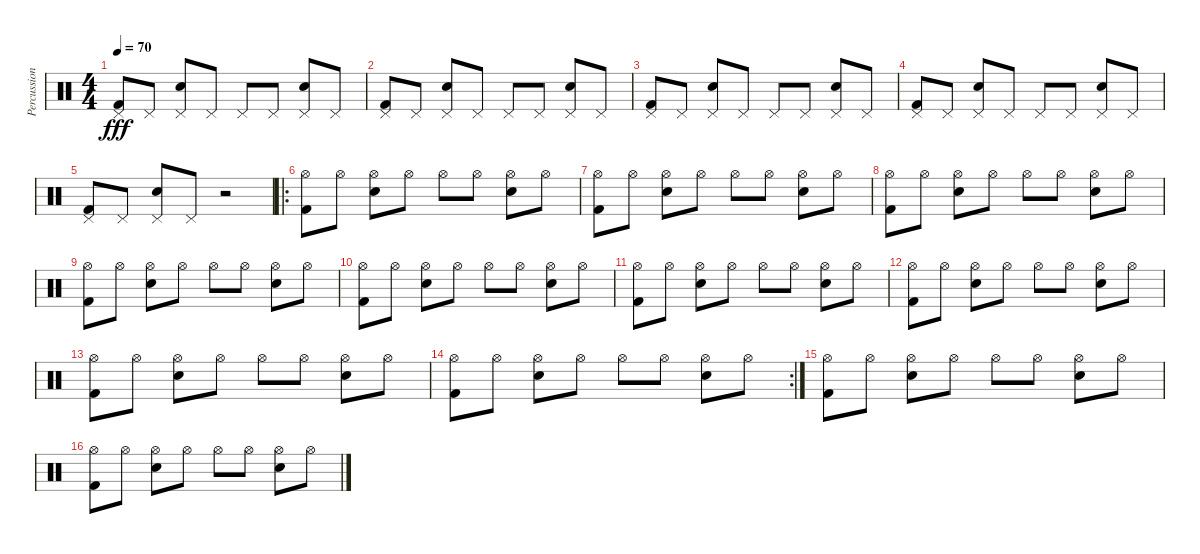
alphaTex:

\track ("Percussions" "Percussion") {instrument percussion}
\staff {score}
\articulation defaults
\ts (4 4)
\tempo 70
\clef neutral
\ks c
("Pedal Hi-Hat (hit)" "Kick (hit) 2").8{dy fff} "Pedal Hi-Hat (hit)".8 ("Pedal Hi-Hat (hit)" "Electric Snare (hit)").8 "Pedal Hi-Hat (hit)".8 "Pedal Hi-Hat (hit)".8 "Pedal Hi-Hat (hit)".8 ("Pedal Hi-Hat (hit)" "Electric Snare (hit)").8 "Pedal Hi-Hat (hit)".8 |
("Pedal Hi-Hat (hit)" "Kick (hit) 2").8 "Pedal Hi-Hat (hit)".8 ("Pedal Hi-Hat (hit)" "Electric Snare (hit)").8 "Pedal Hi-Hat (hit)".8 "Pedal Hi-Hat (hit)".8 "Pedal Hi-Hat (hit)".8 ("Pedal Hi-Hat (hit)" "Electric Snare (hit)").8 "Pedal Hi-Hat (hit)".8 |
("Pedal Hi-Hat (hit)" "Kick (hit) 2").8 "Pedal Hi-Hat (hit)".8 ("Pedal Hi-Hat (hit)" "Electric Snare (hit)").8 "Pedal Hi-Hat (hit)".8 "Pedal Hi-Hat (hit)".8 "Pedal Hi-Hat (hit)".8 ("Pedal Hi-Hat (hit)" "Electric Snare (hit)").8 "Pedal Hi-Hat (hit)".8 |
("Pedal Hi-Hat (hit)" "Kick (hit) 2").8 "Pedal Hi-Hat (hit)".8 ("Pedal Hi-Hat (hit)" "Electric Snare (hit)").8 "Pedal Hi-Hat (hit)".8 "Pedal Hi-Hat (hit)".8 "Pedal Hi-Hat (hit)".8 ("Pedal Hi-Hat (hit)" "Electric Snare (hit)").8 "Pedal Hi-Hat (hit)".8 |
("Pedal Hi-Hat (hit)" "Kick (hit) 2").8 "Pedal Hi-Hat (hit)".8 ("Pedal Hi-Hat (hit)" "Electric Snare (hit)").8 "Pedal Hi-Hat (hit)".8 r.2 |
\ro
("Hi-Hat (open)" "Kick (hit) 2").8 "Hi-Hat (open)".8 ("Hi-Hat (open)" "Electric Snare (hit)").8 "Hi-Hat (open)".8 "Hi-Hat (open)".8 "Hi-Hat (open)".8 ("Hi-Hat (open)" "Electric Snare (hit)").8 "Hi-Hat (open)".8 |
("Hi-Hat (open)" "Kick (hit) 2").8 "Hi-Hat (open)".8 ("Hi-Hat (open)" "Electric Snare (hit)").8 "Hi-Hat (open)".8 "Hi-Hat (open)".8 "Hi-Hat (open)".8 ("Hi-Hat (open)" "Electric Snare (hit)").8 "Hi-Hat (open)".8 |
("Hi-Hat (open)" "Kick (hit) 2").8 "Hi-Hat (open)".8 ("Hi-Hat (open)" "Electric Snare (hit)").8 "Hi-Hat (open)".8 "Hi-Hat (open)".8 "Hi-Hat (open)".8 ("Hi-Hat (open)" "Electric Snare (hit)").8 "Hi-Hat (open)".8 |
("Hi-Hat (open)" "Kick (hit) 2").8 "Hi-Hat (open)".8 ("Hi-Hat (open)" "Electric Snare (hit)").8 "Hi-Hat (open)".8 "Hi-Hat (open)".8 "Hi-Hat (open)".8 ("Hi-Hat (open)" "Electric Snare (hit)").8 "Hi-Hat (open)".8 |
("Hi-Hat (open)" "Kick (hit) 2").8 "Hi-Hat (open)".8 ("Hi-Hat (open)" "Electric Snare (hit)").8 "Hi-Hat (open)".8 "Hi-Hat (open)".8 "Hi-Hat (open)".8 ("Hi-Hat (open)" "Electric Snare (hit)").8 "Hi-Hat (open)".8 |
("Hi-Hat (open)" "Kick (hit) 2").8 "Hi-Hat (open)".8 ("Hi-Hat (open)" "Electric Snare (hit)").8 "Hi-Hat (open)".8 "Hi-Hat (open)".8 "Hi-Hat (open)".8 ("Hi-Hat (open)" "Electric Snare (hit)").8 "Hi-Hat (open)".8 |
("Hi-Hat (open)" "Kick (hit) 2").8 "Hi-Hat (open)".8 ("Hi-Hat (open)" "Electric Snare (hit)").8 "Hi-Hat (open)".8 "Hi-Hat (open)".8 "Hi-Hat (open)".8 ("Hi-Hat (open)" "Electric Snare (hit)").8 "Hi-Hat (open)".8 |
("Hi-Hat (open)" "Kick (hit) 2").8 "Hi-Hat (open)".8 ("Hi-Hat (open)" "Electric Snare (hit)").8 "Hi-Hat (open)".8 "Hi-Hat (open)".8 "Hi-Hat (open)".8 ("Hi-Hat (open)" "Electric Snare (hit)").8 "Hi-Hat (open)".8 |
\rc 2
("Hi-Hat (open)" "Kick (hit) 2").8 "Hi-Hat (open)".8 ("Hi-Hat (open)" "Electric Snare (hit)").8 "Hi-Hat (open)".8 "Hi-Hat (open)".8 "Hi-Hat (open)".8 ("Hi-Hat (open)" "Electric Snare (hit)").8 "Hi-Hat (open)".8 |
("Hi-Hat (open)" "Kick (hit) 2").8 "Hi-Hat (open)".8 ("Hi-Hat (open)" "Electric Snare (hit)").8 "Hi-Hat (open)".8 "Hi-Hat (open)".8 "Hi-Hat (open)".8 ("Hi-Hat (open)" "Electric Snare (hit)").8 "Hi-Hat (open)".8 |
("Hi-Hat (open)" "Kick (hit) 2").8 "Hi-Hat (open)".8 ("Hi-Hat (open)" "Electric Snare (hit)").8 "Hi-Hat (open)".8 "Hi-Hat (open)".8 "Hi-Hat (open)".8 ("Hi-Hat (open)" "Electric Snare (hit)").8 "Hi-Hat (open)".8
